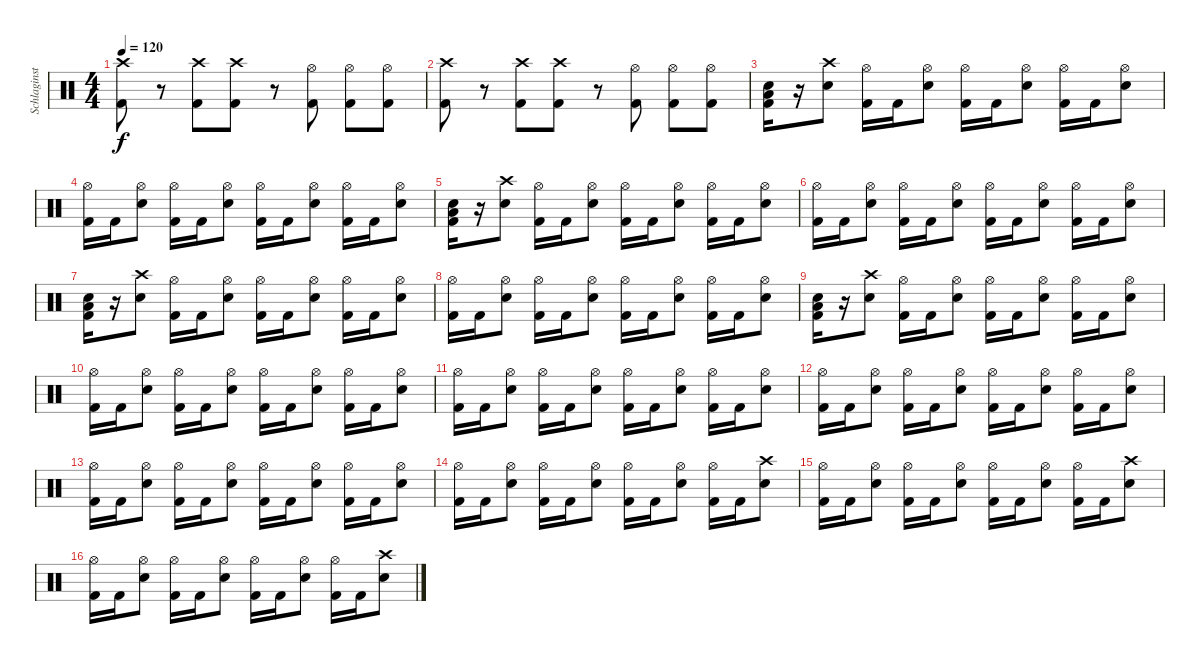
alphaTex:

\track ("Schlaginstrumente - Auswahl" "Schlaginst") {instrument percussion}
\staff {score}
\articulation defaults
\ts (4 4)
\tempo 120
\clef neutral
\ks c
("Crash high (hit)" "Kick (hit) 2").8{dy f} r.8 ("Crash high (hit)" "Kick (hit) 2").8 ("Crash high (hit)" "Kick (hit) 2").8 r.8 ("Hi-Hat (open)" "Kick (hit) 2").8 ("Hi-Hat (open)" "Kick (hit) 2").8 ("Hi-Hat (open)" "Kick (hit) 2").8 |
("Crash high (hit)" "Kick (hit) 2").8 r.8 ("Crash high (hit)" "Kick (hit) 2").8 ("Crash high (hit)" "Kick (hit) 2").8 r.8 ("Hi-Hat (open)" "Kick (hit) 2").8 ("Hi-Hat (open)" "Kick (hit) 2").8 ("Hi-Hat (open)" "Kick (hit) 2").8 |
("Electric Snare (hit)" "Low Tom (hit)" "Kick (hit) 2").16 r.16 ("Crash high (hit)" "Electric Snare (hit)").8 ("Hi-Hat (open)" "Kick (hit) 2").16 "Kick (hit) 2".16 ("Hi-Hat (open)" "Electric Snare (hit)").8 ("Hi-Hat (open)" "Kick (hit) 2").16 "Kick (hit) 2".16 ("Hi-Hat (open)" "Electric Snare (hit)").8 ("Hi-Hat (open)" "Kick (hit) 2").16 "Kick (hit) 2".16 ("Hi-Hat (open)" "Electric Snare (hit)").8 |
("Hi-Hat (open)" "Kick (hit) 2").16 "Kick (hit) 2".16 ("Hi-Hat (open)" "Electric Snare (hit)").8 ("Hi-Hat (open)" "Kick (hit) 2").16 "Kick (hit) 2".16 ("Hi-Hat (open)" "Electric Snare (hit)").8 ("Hi-Hat (open)" "Kick (hit) 2").16 "Kick (hit) 2".16 ("Hi-Hat (open)" "Electric Snare (hit)").8 ("Hi-Hat (open)" "Kick (hit) 2").16 "Kick (hit) 2".16 ("Hi-Hat (open)" "Electric Snare (hit)").8 |
("Electric Snare (hit)" "Low Tom (hit)" "Kick (hit) 2").16 r.16 ("Crash high (hit)" "Electric Snare (hit)").8 ("Hi-Hat (open)" "Kick (hit) 2").16 "Kick (hit) 2".16 ("Hi-Hat (open)" "Electric Snare (hit)").8 ("Hi-Hat (open)" "Kick (hit) 2").16 "Kick (hit) 2".16 ("Hi-Hat (open)" "Electric Snare (hit)").8 ("Hi-Hat (open)" "Kick (hit) 2").16 "Kick (hit) 2".16 ("Hi-Hat (open)" "Electric Snare (hit)").8 |
("Hi-Hat (open)" "Kick (hit) 2").16 "Kick (hit) 2".16 ("Hi-Hat (open)" "Electric Snare (hit)").8 ("Hi-Hat (open)" "Kick (hit) 2").16 "Kick (hit) 2".16 ("Hi-Hat (open)" "Electric Snare (hit)").8 ("Hi-Hat (open)" "Kick (hit) 2").16 "Kick (hit) 2".16 ("Hi-Hat (open)" "Electric Snare (hit)").8 ("Hi-Hat (open)" "Kick (hit) 2").16 "Kick (hit) 2".16 ("Hi-Hat (open)" "Electric Snare (hit)").8 |
("Electric Snare (hit)" "Low Tom (hit)" "Kick (hit) 2").16 r.16 ("Crash high (hit)" "Electric Snare (hit)").8 ("Hi-Hat (open)" "Kick (hit) 2").16 "Kick (hit) 2".16 ("Hi-Hat (open)" "Electric Snare (hit)").8 ("Hi-Hat (open)" "Kick (hit) 2").16 "Kick (hit) 2".16 ("Hi-Hat (open)" "Electric Snare (hit)").8 ("Hi-Hat (open)" "Kick (hit) 2").16 "Kick (hit) 2".16 ("Hi-Hat (open)" "Electric Snare (hit)").8 |
("Hi-Hat (open)" "Kick (hit) 2").16 "Kick (hit) 2".16 ("Hi-Hat (open)" "Electric Snare (hit)").8 ("Hi-Hat (open)" "Kick (hit) 2").16 "Kick (hit) 2".16 ("Hi-Hat (open)" "Electric Snare (hit)").8 ("Hi-Hat (open)" "Kick (hit) 2").16 "Kick (hit) 2".16 ("Hi-Hat (open)" "Electric Snare (hit)").8 ("Hi-Hat (open)" "Kick (hit) 2").16 "Kick (hit) 2".16 ("Hi-Hat (open)" "Electric Snare (hit)").8 |
("Electric Snare (hit)" "Low Tom (hit)" "Kick (hit) 2").16 r.16 ("Crash high (hit)" "Electric Snare (hit)").8 ("Hi-Hat (open)" "Kick (hit) 2").16 "Kick (hit) 2".16 ("Hi-Hat (open)" "Electric Snare (hit)").8 ("Hi-Hat (open)" "Kick (hit) 2").16 "Kick (hit) 2".16 ("Hi-Hat (open)" "Electric Snare (hit)").8 ("Hi-Hat (open)" "Kick (hit) 2").16 "Kick (hit) 2".16 ("Hi-Hat (open)" "Electric Snare (hit)").8 |
("Hi-Hat (open)" "Kick (hit) 2").16 "Kick (hit) 2".16 ("Hi-Hat (open)" "Electric Snare (hit)").8 ("Hi-Hat (open)" "Kick (hit) 2").16 "Kick (hit) 2".16 ("Hi-Hat (open)" "Electric Snare (hit)").8 ("Hi-Hat (open)" "Kick (hit) 2").16 "Kick (hit) 2".16 ("Hi-Hat (open)" "Electric Snare (hit)").8 ("Hi-Hat (open)" "Kick (hit) 2").16 "Kick (hit) 2".16 ("Hi-Hat (open)" "Electric Snare (hit)").8 |
("Hi-Hat (open)" "Kick (hit) 2").16 "Kick (hit) 2".16 ("Hi-Hat (open)" "Electric Snare (hit)").8 ("Hi-Hat (open)" "Kick (hit) 2").16 "Kick (hit) 2".16 ("Hi-Hat (open)" "Electric Snare (hit)").8 ("Hi-Hat (open)" "Kick (hit) 2").16 "Kick (hit) 2".16 ("Hi-Hat (open)" "Electric Snare (hit)").8 ("Hi-Hat (open)" "Kick (hit) 2").16 "Kick (hit) 2".16 ("Hi-Hat (open)" "Electric Snare (hit)").8 |
("Hi-Hat (open)" "Kick (hit) 2").16 "Kick (hit) 2".16 ("Hi-Hat (open)" "Electric Snare (hit)").8 ("Hi-Hat (open)" "Kick (hit) 2").16 "Kick (hit) 2".16 ("Hi-Hat (open)" "Electric Snare (hit)").8 ("Hi-Hat (open)" "Kick (hit) 2").16 "Kick (hit) 2".16 ("Hi-Hat (open)" "Electric Snare (hit)").8 ("Hi-Hat (open)" "Kick (hit) 2").16 "Kick (hit) 2".16 ("Hi-Hat (open)" "Electric Snare (hit)").8 |
("Hi-Hat (open)" "Kick (hit) 2").16 "Kick (hit) 2".16 ("Hi-Hat (open)" "Electric Snare (hit)").8 ("Hi-Hat (open)" "Kick (hit) 2").16 "Kick (hit) 2".16 ("Hi-Hat (open)" "Electric Snare (hit)").8 ("Hi-Hat (open)" "Kick (hit) 2").16 "Kick (hit) 2".16 ("Hi-Hat (open)" "Electric Snare (hit)").8 ("Hi-Hat (open)" "Kick (hit) 2").16 "Kick (hit) 2".16 ("Hi-Hat (open)" "Electric Snare (hit)").8 |
("Hi-Hat (open)" "Kick (hit) 2").16 "Kick (hit) 2".16 ("Hi-Hat (open)" "Electric Snare (hit)").8 ("Hi-Hat (open)" "Kick (hit) 2").16 "Kick (hit) 2".16 ("Hi-Hat (open)" "Electric Snare (hit)").8 ("Hi-Hat (open)" "Kick (hit) 2").16 "Kick (hit) 2".16 ("Hi-Hat (open)" "Electric Snare (hit)").8 ("Hi-Hat (open)" "Kick (hit) 2").16 "Kick (hit) 2".16 ("Crash high (hit)" "Electric Snare (hit)").8 |
("Hi-Hat (open)" "Kick (hit) 2").16 "Kick (hit) 2".16 ("Hi-Hat (open)" "Electric Snare (hit)").8 ("Hi-Hat (open)" "Kick (hit) 2").16 "Kick (hit) 2".16 ("Hi-Hat (open)" "Electric Snare (hit)").8 ("Hi-Hat (open)" "Kick (hit) 2").16 "Kick (hit) 2".16 ("Hi-Hat (open)" "Electric Snare (hit)").8 ("Hi-Hat (open)" "Kick (hit) 2").16 "Kick (hit) 2".16 ("Crash high (hit)" "Electric Snare (hit)").8 |
("Hi-Hat (open)" "Kick (hit) 2").16 "Kick (hit) 2".16 ("Hi-Hat (open)" "Electric Snare (hit)").8 ("Hi-Hat (open)" "Kick (hit) 2").16 "Kick (hit) 2".16 ("Hi-Hat (open)" "Electric Snare (hit)").8 ("Hi-Hat (open)" "Kick (hit) 2").16 "Kick (hit) 2".16 ("Hi-Hat (open)" "Electric Snare (hit)").8 ("Hi-Hat (open)" "Kick (hit) 2").16 "Kick (hit) 2".16 ("Crash high (hit)" "Electric Snare (hit)").8
